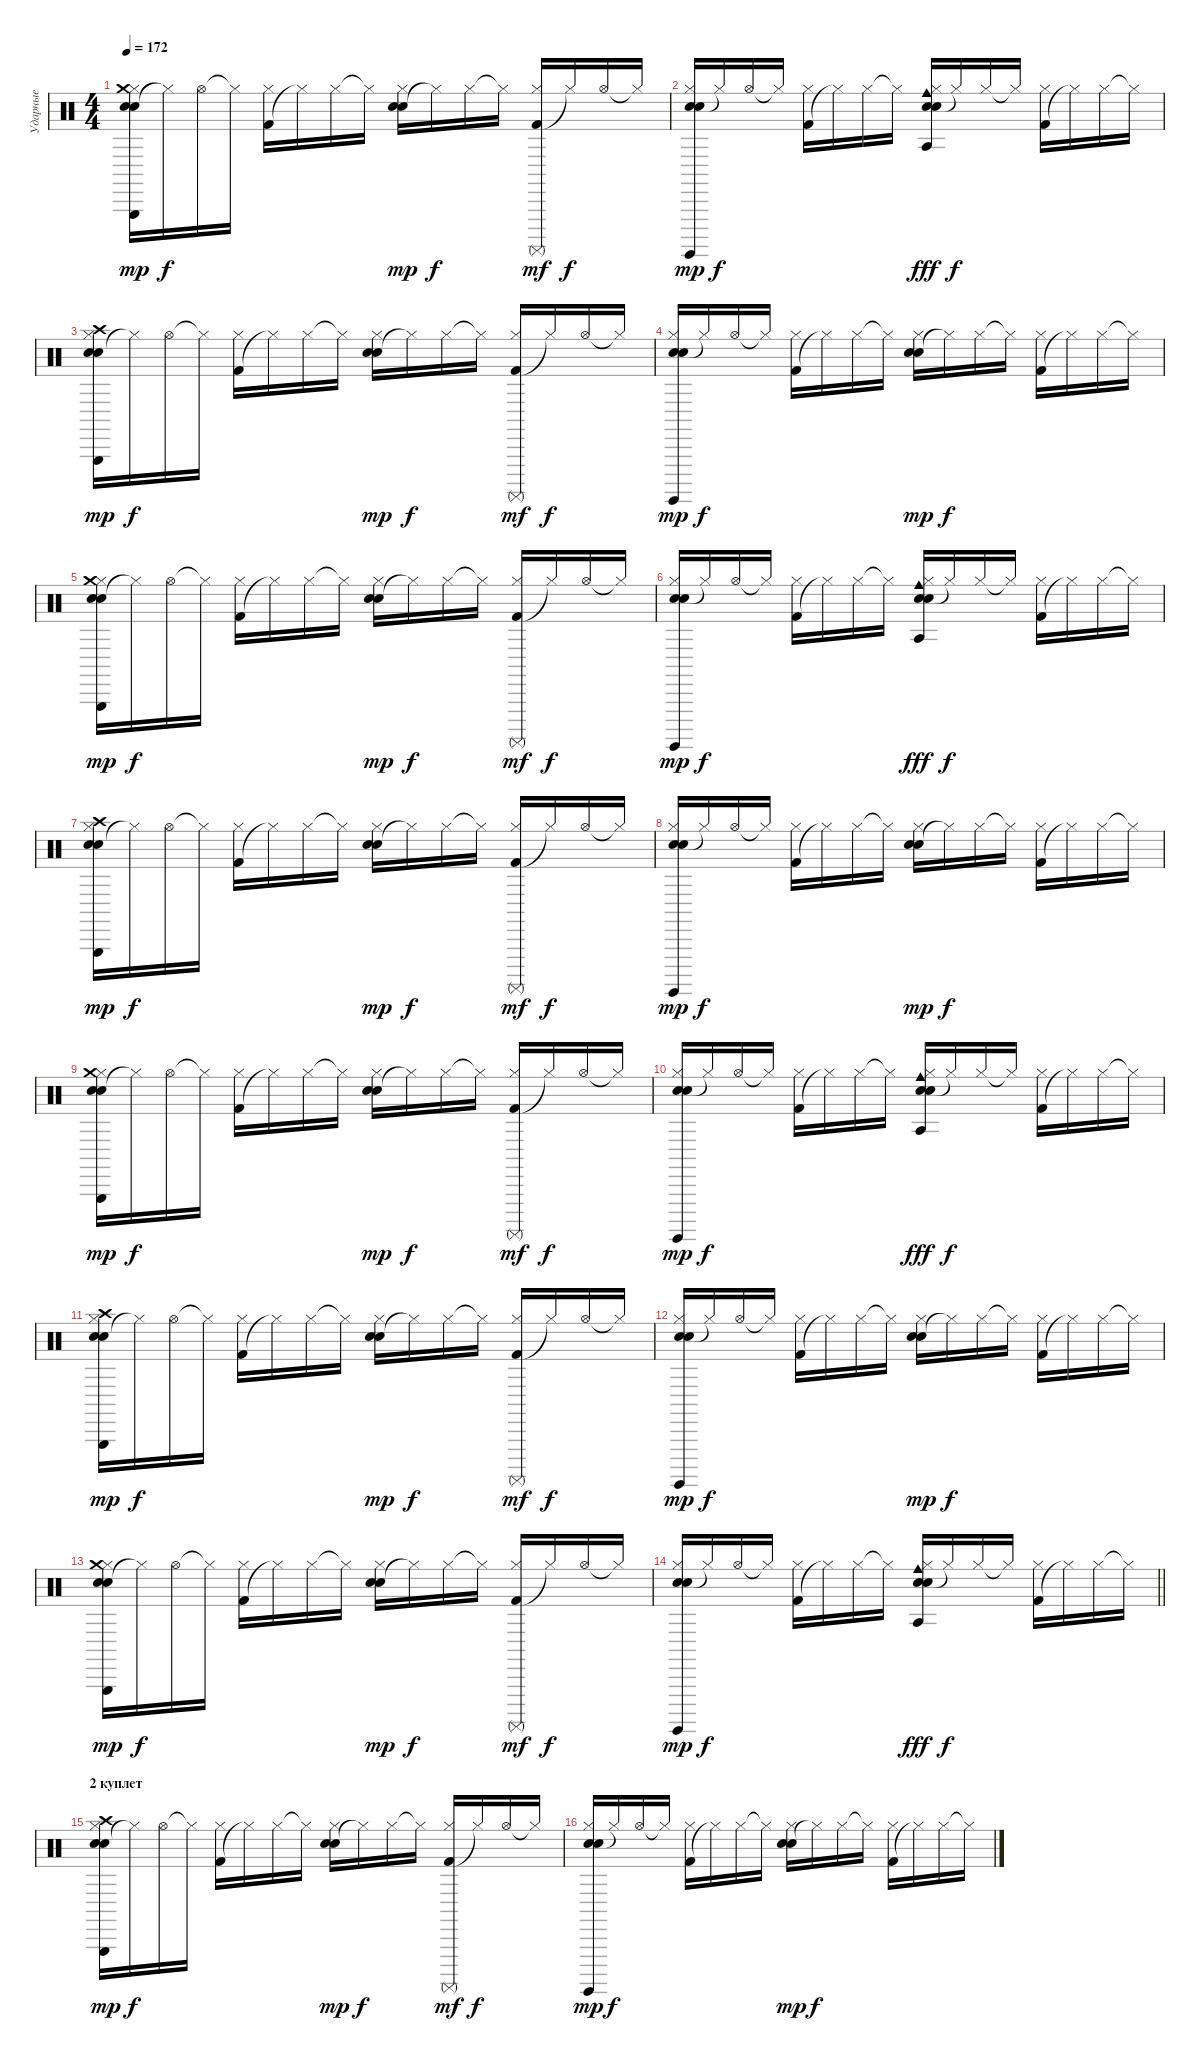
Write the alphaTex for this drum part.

\track ("Ударные" "Ударные") {instrument percussion}
\staff {score}
\articulation defaults
\ts (4 4)
\tempo 172
\clef neutral
\ks c
("Snare (hit) 2" "Electric Snare (hit)" "Hi-Hat (closed)" "Triangle (hit)" "Crash medium (hit)").16{dy mp} "Hi-Hat (closed)"{t}.16{dy f} "Hi-Hat (open)".16 "Hi-Hat (closed)"{t}.16 ("Kick (hit) 2" "Hi-Hat (closed)").16 "Hi-Hat (closed)"{t}.16 "Hi-Hat (closed)".16 "Hi-Hat (closed)"{t}.16 ("Snare (hit) 2" "Electric Snare (hit)" "Hi-Hat (closed)").16{dy mp} "Hi-Hat (closed)"{t}.16{dy f} "Hi-Hat (closed)".16 "Hi-Hat (closed)"{t}.16 ("Kick (hit) 2" "Hi-Hat (closed)" "Surdo (mute)").16{dy mf} "Hi-Hat (closed)"{t}.16{dy f} "Hi-Hat (open)".16 "Hi-Hat (closed)"{t}.16 |
("Snare (hit) 2" "Electric Snare (hit)" "Hi-Hat (closed)" "Surdo (hit)").16{dy mp} "Hi-Hat (closed)"{t}.16{dy f} "Hi-Hat (open)".16 "Hi-Hat (closed)"{t}.16 ("Kick (hit) 2" "Hi-Hat (closed)").16 "Hi-Hat (closed)"{t}.16 "Hi-Hat (closed)".16 "Hi-Hat (closed)"{t}.16 ("Snare (hit) 2" "Electric Snare (hit)" "Hi-Hat (closed)" "Cowbell medium (hit)" "Agogo tow (hit)").16{dy fff} "Hi-Hat (closed)"{t}.16{dy f} "Hi-Hat (closed)".16 "Hi-Hat (closed)"{t}.16 ("Kick (hit) 2" "Hi-Hat (closed)").16 "Hi-Hat (closed)"{t}.16 "Hi-Hat (closed)".16 "Hi-Hat (closed)"{t}.16 |
("Snare (hit) 2" "Electric Snare (hit)" "Hi-Hat (closed)" "Triangle (hit)" "Crash high (hit)").16{dy mp} "Hi-Hat (closed)"{t}.16{dy f} "Hi-Hat (open)".16 "Hi-Hat (closed)"{t}.16 ("Kick (hit) 2" "Hi-Hat (closed)").16 "Hi-Hat (closed)"{t}.16 "Hi-Hat (closed)".16 "Hi-Hat (closed)"{t}.16 ("Snare (hit) 2" "Electric Snare (hit)" "Hi-Hat (closed)").16{dy mp} "Hi-Hat (closed)"{t}.16{dy f} "Hi-Hat (closed)".16 "Hi-Hat (closed)"{t}.16 ("Kick (hit) 2" "Hi-Hat (closed)" "Surdo (mute)").16{dy mf} "Hi-Hat (closed)"{t}.16{dy f} "Hi-Hat (open)".16 "Hi-Hat (closed)"{t}.16 |
("Snare (hit) 2" "Electric Snare (hit)" "Hi-Hat (closed)" "Surdo (hit)").16{dy mp} "Hi-Hat (closed)"{t}.16{dy f} "Hi-Hat (open)".16 "Hi-Hat (closed)"{t}.16 ("Kick (hit) 2" "Hi-Hat (closed)").16 "Hi-Hat (closed)"{t}.16 "Hi-Hat (closed)".16 "Hi-Hat (closed)"{t}.16 ("Snare (hit) 2" "Electric Snare (hit)" "Hi-Hat (closed)").16{dy mp} "Hi-Hat (closed)"{t}.16{dy f} "Hi-Hat (closed)".16 "Hi-Hat (closed)"{t}.16 ("Kick (hit) 2" "Hi-Hat (closed)").16 "Hi-Hat (closed)"{t}.16 "Hi-Hat (closed)".16 "Hi-Hat (closed)"{t}.16 |
("Snare (hit) 2" "Electric Snare (hit)" "Hi-Hat (closed)" "Triangle (hit)" "Crash medium (hit)").16{dy mp} "Hi-Hat (closed)"{t}.16{dy f} "Hi-Hat (open)".16 "Hi-Hat (closed)"{t}.16 ("Kick (hit) 2" "Hi-Hat (closed)").16 "Hi-Hat (closed)"{t}.16 "Hi-Hat (closed)".16 "Hi-Hat (closed)"{t}.16 ("Snare (hit) 2" "Electric Snare (hit)" "Hi-Hat (closed)").16{dy mp} "Hi-Hat (closed)"{t}.16{dy f} "Hi-Hat (closed)".16 "Hi-Hat (closed)"{t}.16 ("Kick (hit) 2" "Hi-Hat (closed)" "Surdo (mute)").16{dy mf} "Hi-Hat (closed)"{t}.16{dy f} "Hi-Hat (open)".16 "Hi-Hat (closed)"{t}.16 |
("Snare (hit) 2" "Electric Snare (hit)" "Hi-Hat (closed)" "Surdo (hit)").16{dy mp} "Hi-Hat (closed)"{t}.16{dy f} "Hi-Hat (open)".16 "Hi-Hat (closed)"{t}.16 ("Kick (hit) 2" "Hi-Hat (closed)").16 "Hi-Hat (closed)"{t}.16 "Hi-Hat (closed)".16 "Hi-Hat (closed)"{t}.16 ("Snare (hit) 2" "Electric Snare (hit)" "Hi-Hat (closed)" "Cowbell medium (hit)" "Agogo tow (hit)").16{dy fff} "Hi-Hat (closed)"{t}.16{dy f} "Hi-Hat (closed)".16 "Hi-Hat (closed)"{t}.16 ("Kick (hit) 2" "Hi-Hat (closed)").16 "Hi-Hat (closed)"{t}.16 "Hi-Hat (closed)".16 "Hi-Hat (closed)"{t}.16 |
("Snare (hit) 2" "Electric Snare (hit)" "Hi-Hat (closed)" "Triangle (hit)" "Crash high (hit)").16{dy mp} "Hi-Hat (closed)"{t}.16{dy f} "Hi-Hat (open)".16 "Hi-Hat (closed)"{t}.16 ("Kick (hit) 2" "Hi-Hat (closed)").16 "Hi-Hat (closed)"{t}.16 "Hi-Hat (closed)".16 "Hi-Hat (closed)"{t}.16 ("Snare (hit) 2" "Electric Snare (hit)" "Hi-Hat (closed)").16{dy mp} "Hi-Hat (closed)"{t}.16{dy f} "Hi-Hat (closed)".16 "Hi-Hat (closed)"{t}.16 ("Kick (hit) 2" "Hi-Hat (closed)" "Surdo (mute)").16{dy mf} "Hi-Hat (closed)"{t}.16{dy f} "Hi-Hat (open)".16 "Hi-Hat (closed)"{t}.16 |
("Snare (hit) 2" "Electric Snare (hit)" "Hi-Hat (closed)" "Surdo (hit)").16{dy mp} "Hi-Hat (closed)"{t}.16{dy f} "Hi-Hat (open)".16 "Hi-Hat (closed)"{t}.16 ("Kick (hit) 2" "Hi-Hat (closed)").16 "Hi-Hat (closed)"{t}.16 "Hi-Hat (closed)".16 "Hi-Hat (closed)"{t}.16 ("Snare (hit) 2" "Electric Snare (hit)" "Hi-Hat (closed)").16{dy mp} "Hi-Hat (closed)"{t}.16{dy f} "Hi-Hat (closed)".16 "Hi-Hat (closed)"{t}.16 ("Kick (hit) 2" "Hi-Hat (closed)").16 "Hi-Hat (closed)"{t}.16 "Hi-Hat (closed)".16 "Hi-Hat (closed)"{t}.16 |
("Snare (hit) 2" "Electric Snare (hit)" "Hi-Hat (closed)" "Triangle (hit)" "Crash medium (hit)").16{dy mp} "Hi-Hat (closed)"{t}.16{dy f} "Hi-Hat (open)".16 "Hi-Hat (closed)"{t}.16 ("Kick (hit) 2" "Hi-Hat (closed)").16 "Hi-Hat (closed)"{t}.16 "Hi-Hat (closed)".16 "Hi-Hat (closed)"{t}.16 ("Snare (hit) 2" "Electric Snare (hit)" "Hi-Hat (closed)").16{dy mp} "Hi-Hat (closed)"{t}.16{dy f} "Hi-Hat (closed)".16 "Hi-Hat (closed)"{t}.16 ("Kick (hit) 2" "Hi-Hat (closed)" "Surdo (mute)").16{dy mf} "Hi-Hat (closed)"{t}.16{dy f} "Hi-Hat (open)".16 "Hi-Hat (closed)"{t}.16 |
("Snare (hit) 2" "Electric Snare (hit)" "Hi-Hat (closed)" "Surdo (hit)").16{dy mp} "Hi-Hat (closed)"{t}.16{dy f} "Hi-Hat (open)".16 "Hi-Hat (closed)"{t}.16 ("Kick (hit) 2" "Hi-Hat (closed)").16 "Hi-Hat (closed)"{t}.16 "Hi-Hat (closed)".16 "Hi-Hat (closed)"{t}.16 ("Snare (hit) 2" "Electric Snare (hit)" "Hi-Hat (closed)" "Cowbell medium (hit)" "Agogo tow (hit)").16{dy fff} "Hi-Hat (closed)"{t}.16{dy f} "Hi-Hat (closed)".16 "Hi-Hat (closed)"{t}.16 ("Kick (hit) 2" "Hi-Hat (closed)").16 "Hi-Hat (closed)"{t}.16 "Hi-Hat (closed)".16 "Hi-Hat (closed)"{t}.16 |
("Snare (hit) 2" "Electric Snare (hit)" "Hi-Hat (closed)" "Triangle (hit)" "Crash high (hit)").16{dy mp} "Hi-Hat (closed)"{t}.16{dy f} "Hi-Hat (open)".16 "Hi-Hat (closed)"{t}.16 ("Kick (hit) 2" "Hi-Hat (closed)").16 "Hi-Hat (closed)"{t}.16 "Hi-Hat (closed)".16 "Hi-Hat (closed)"{t}.16 ("Snare (hit) 2" "Electric Snare (hit)" "Hi-Hat (closed)").16{dy mp} "Hi-Hat (closed)"{t}.16{dy f} "Hi-Hat (closed)".16 "Hi-Hat (closed)"{t}.16 ("Kick (hit) 2" "Hi-Hat (closed)" "Surdo (mute)").16{dy mf} "Hi-Hat (closed)"{t}.16{dy f} "Hi-Hat (open)".16 "Hi-Hat (closed)"{t}.16 |
("Snare (hit) 2" "Electric Snare (hit)" "Hi-Hat (closed)" "Surdo (hit)").16{dy mp} "Hi-Hat (closed)"{t}.16{dy f} "Hi-Hat (open)".16 "Hi-Hat (closed)"{t}.16 ("Kick (hit) 2" "Hi-Hat (closed)").16 "Hi-Hat (closed)"{t}.16 "Hi-Hat (closed)".16 "Hi-Hat (closed)"{t}.16 ("Snare (hit) 2" "Electric Snare (hit)" "Hi-Hat (closed)").16{dy mp} "Hi-Hat (closed)"{t}.16{dy f} "Hi-Hat (closed)".16 "Hi-Hat (closed)"{t}.16 ("Kick (hit) 2" "Hi-Hat (closed)").16 "Hi-Hat (closed)"{t}.16 "Hi-Hat (closed)".16 "Hi-Hat (closed)"{t}.16 |
("Snare (hit) 2" "Electric Snare (hit)" "Hi-Hat (closed)" "Triangle (hit)" "Crash medium (hit)").16{dy mp} "Hi-Hat (closed)"{t}.16{dy f} "Hi-Hat (open)".16 "Hi-Hat (closed)"{t}.16 ("Kick (hit) 2" "Hi-Hat (closed)").16 "Hi-Hat (closed)"{t}.16 "Hi-Hat (closed)".16 "Hi-Hat (closed)"{t}.16 ("Snare (hit) 2" "Electric Snare (hit)" "Hi-Hat (closed)").16{dy mp} "Hi-Hat (closed)"{t}.16{dy f} "Hi-Hat (closed)".16 "Hi-Hat (closed)"{t}.16 ("Kick (hit) 2" "Hi-Hat (closed)" "Surdo (mute)").16{dy mf} "Hi-Hat (closed)"{t}.16{dy f} "Hi-Hat (open)".16 "Hi-Hat (closed)"{t}.16 |
\barLineRight lightlight
("Snare (hit) 2" "Electric Snare (hit)" "Hi-Hat (closed)" "Surdo (hit)").16{dy mp} "Hi-Hat (closed)"{t}.16{dy f} "Hi-Hat (open)".16 "Hi-Hat (closed)"{t}.16 ("Kick (hit) 2" "Hi-Hat (closed)").16 "Hi-Hat (closed)"{t}.16 "Hi-Hat (closed)".16 "Hi-Hat (closed)"{t}.16 ("Snare (hit) 2" "Electric Snare (hit)" "Hi-Hat (closed)" "Cowbell medium (hit)" "Agogo tow (hit)").16{dy fff} "Hi-Hat (closed)"{t}.16{dy f} "Hi-Hat (closed)".16 "Hi-Hat (closed)"{t}.16 ("Kick (hit) 2" "Hi-Hat (closed)").16 "Hi-Hat (closed)"{t}.16 "Hi-Hat (closed)".16 "Hi-Hat (closed)"{t}.16 |
\section ("" "2 куплет")
("Snare (hit) 2" "Electric Snare (hit)" "Hi-Hat (closed)" "Triangle (hit)" "Crash high (hit)").16{dy mp} "Hi-Hat (closed)"{t}.16{dy f} "Hi-Hat (open)".16 "Hi-Hat (closed)"{t}.16 ("Kick (hit) 2" "Hi-Hat (closed)").16 "Hi-Hat (closed)"{t}.16 "Hi-Hat (closed)".16 "Hi-Hat (closed)"{t}.16 ("Snare (hit) 2" "Electric Snare (hit)" "Hi-Hat (closed)").16{dy mp} "Hi-Hat (closed)"{t}.16{dy f} "Hi-Hat (closed)".16 "Hi-Hat (closed)"{t}.16 ("Kick (hit) 2" "Hi-Hat (closed)" "Surdo (mute)").16{dy mf} "Hi-Hat (closed)"{t}.16{dy f} "Hi-Hat (open)".16 "Hi-Hat (closed)"{t}.16 |
("Snare (hit) 2" "Electric Snare (hit)" "Hi-Hat (closed)" "Surdo (hit)").16{dy mp} "Hi-Hat (closed)"{t}.16{dy f} "Hi-Hat (open)".16 "Hi-Hat (closed)"{t}.16 ("Kick (hit) 2" "Hi-Hat (closed)").16 "Hi-Hat (closed)"{t}.16 "Hi-Hat (closed)".16 "Hi-Hat (closed)"{t}.16 ("Snare (hit) 2" "Electric Snare (hit)" "Hi-Hat (closed)").16{dy mp} "Hi-Hat (closed)"{t}.16{dy f} "Hi-Hat (closed)".16 "Hi-Hat (closed)"{t}.16 ("Kick (hit) 2" "Hi-Hat (closed)").16 "Hi-Hat (closed)"{t}.16 "Hi-Hat (closed)".16 "Hi-Hat (closed)"{t}.16
